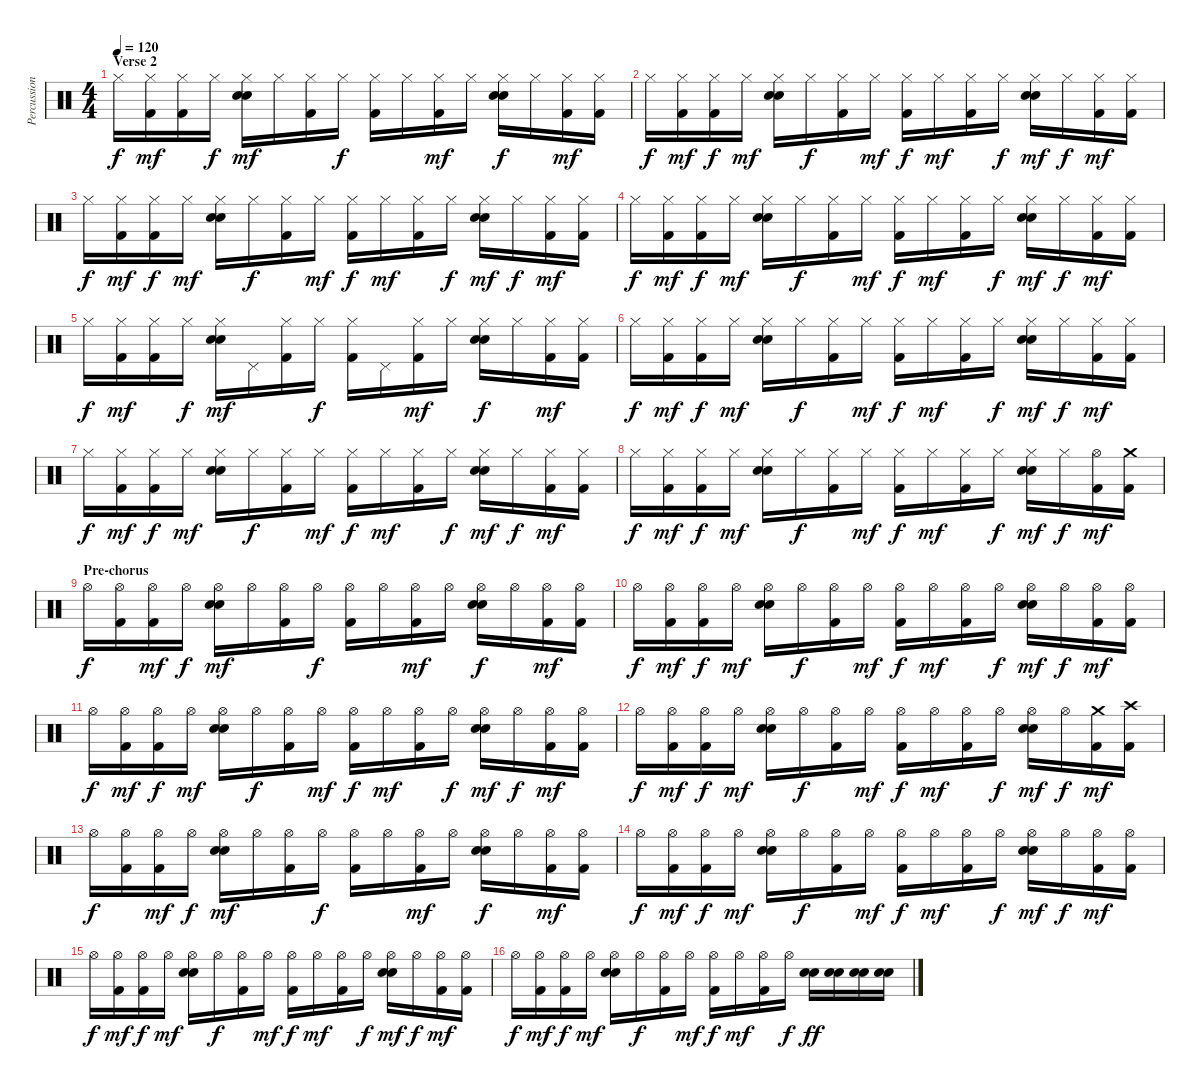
\track ("Percussions" "Percussion") {instrument percussion}
\staff {score}
\articulation defaults
\ts (4 4)
\section ("" "Verse 2")
\tempo 120
\clef neutral
\ks c "Hi-Hat (closed)".16{dy f}
("Hi-Hat (closed)" "Kick (hit) 2").16{dy mf} ("Hi-Hat (closed)" "Kick (hit) 2").16 "Hi-Hat (closed)".16{dy f} ("Hi-Hat (closed)" "Snare (hit) 2" "Electric Snare (hit)").16{dy mf} "Hi-Hat (closed)".16 ("Hi-Hat (closed)" "Kick (hit) 2").16 "Hi-Hat (closed)".16{dy f} ("Hi-Hat (closed)" "Kick (hit) 2").16 "Hi-Hat (closed)".16 ("Hi-Hat (closed)" "Kick (hit) 2").16{dy mf} "Hi-Hat (closed)".16 ("Hi-Hat (closed)" "Snare (hit) 2" "Electric Snare (hit)").16{dy f} "Hi-Hat (closed)".16 ("Hi-Hat (closed)" "Kick (hit) 2").16{dy mf} ("Hi-Hat (closed)" "Kick (hit) 2").16 |
"Hi-Hat (closed)".16{dy f} ("Hi-Hat (closed)" "Kick (hit) 2").16{dy mf} ("Hi-Hat (closed)" "Kick (hit) 2").16{dy f} "Hi-Hat (closed)".16{dy mf} ("Hi-Hat (closed)" "Snare (hit) 2" "Electric Snare (hit)").16 "Hi-Hat (closed)".16{dy f} ("Hi-Hat (closed)" "Kick (hit) 2").16 "Hi-Hat (closed)".16{dy mf} ("Hi-Hat (closed)" "Kick (hit) 2").16{dy f} "Hi-Hat (closed)".16{dy mf} ("Hi-Hat (closed)" "Kick (hit) 2").16 "Hi-Hat (closed)".16{dy f} ("Hi-Hat (closed)" "Snare (hit) 2" "Electric Snare (hit)").16{dy mf} "Hi-Hat (closed)".16{dy f} ("Hi-Hat (closed)" "Kick (hit) 2").16{dy mf} ("Hi-Hat (closed)" "Kick (hit) 2").16 |
"Hi-Hat (closed)".16{dy f} ("Hi-Hat (closed)" "Kick (hit) 2").16{dy mf} ("Hi-Hat (closed)" "Kick (hit) 2").16{dy f} "Hi-Hat (closed)".16{dy mf} ("Hi-Hat (closed)" "Snare (hit) 2" "Electric Snare (hit)").16 "Hi-Hat (closed)".16{dy f} ("Hi-Hat (closed)" "Kick (hit) 2").16 "Hi-Hat (closed)".16{dy mf} ("Hi-Hat (closed)" "Kick (hit) 2").16{dy f} "Hi-Hat (closed)".16{dy mf} ("Hi-Hat (closed)" "Kick (hit) 2").16 "Hi-Hat (closed)".16{dy f} ("Hi-Hat (closed)" "Snare (hit) 2" "Electric Snare (hit)").16{dy mf} "Hi-Hat (closed)".16{dy f} ("Hi-Hat (closed)" "Kick (hit) 2").16{dy mf} ("Hi-Hat (closed)" "Kick (hit) 2").16 |
"Hi-Hat (closed)".16{dy f} ("Hi-Hat (closed)" "Kick (hit) 2").16{dy mf} ("Hi-Hat (closed)" "Kick (hit) 2").16{dy f} "Hi-Hat (closed)".16{dy mf} ("Hi-Hat (closed)" "Snare (hit) 2" "Electric Snare (hit)").16 "Hi-Hat (closed)".16{dy f} ("Hi-Hat (closed)" "Kick (hit) 2").16 "Hi-Hat (closed)".16{dy mf} ("Hi-Hat (closed)" "Kick (hit) 2").16{dy f} "Hi-Hat (closed)".16{dy mf} ("Hi-Hat (closed)" "Kick (hit) 2").16 "Hi-Hat (closed)".16{dy f} ("Hi-Hat (closed)" "Snare (hit) 2" "Electric Snare (hit)").16{dy mf} "Hi-Hat (closed)".16{dy f} ("Hi-Hat (closed)" "Kick (hit) 2").16{dy mf} ("Hi-Hat (closed)" "Kick (hit) 2").16 |
"Hi-Hat (closed)".16{dy f} ("Hi-Hat (closed)" "Kick (hit) 2").16{dy mf} ("Hi-Hat (closed)" "Kick (hit) 2").16 "Hi-Hat (closed)".16{dy f} ("Hi-Hat (closed)" "Snare (hit) 2" "Electric Snare (hit)").16{dy mf} "Pedal Hi-Hat (hit)".16 ("Hi-Hat (closed)" "Kick (hit) 2").16 "Hi-Hat (closed)".16{dy f} ("Hi-Hat (closed)" "Kick (hit) 2").16 "Pedal Hi-Hat (hit)".16 ("Hi-Hat (closed)" "Kick (hit) 2").16{dy mf} "Hi-Hat (closed)".16 ("Hi-Hat (closed)" "Snare (hit) 2" "Electric Snare (hit)").16{dy f} "Hi-Hat (closed)".16 ("Hi-Hat (closed)" "Kick (hit) 2").16{dy mf} ("Hi-Hat (closed)" "Kick (hit) 2").16 |
"Hi-Hat (closed)".16{dy f} ("Hi-Hat (closed)" "Kick (hit) 2").16{dy mf} ("Hi-Hat (closed)" "Kick (hit) 2").16{dy f} "Hi-Hat (closed)".16{dy mf} ("Hi-Hat (closed)" "Snare (hit) 2" "Electric Snare (hit)").16 "Hi-Hat (closed)".16{dy f} ("Hi-Hat (closed)" "Kick (hit) 2").16 "Hi-Hat (closed)".16{dy mf} ("Hi-Hat (closed)" "Kick (hit) 2").16{dy f} "Hi-Hat (closed)".16{dy mf} ("Hi-Hat (closed)" "Kick (hit) 2").16 "Hi-Hat (closed)".16{dy f} ("Hi-Hat (closed)" "Snare (hit) 2" "Electric Snare (hit)").16{dy mf} "Hi-Hat (closed)".16{dy f} ("Hi-Hat (closed)" "Kick (hit) 2").16{dy mf} ("Hi-Hat (closed)" "Kick (hit) 2").16 |
"Hi-Hat (closed)".16{dy f} ("Hi-Hat (closed)" "Kick (hit) 2").16{dy mf} ("Hi-Hat (closed)" "Kick (hit) 2").16{dy f} "Hi-Hat (closed)".16{dy mf} ("Hi-Hat (closed)" "Snare (hit) 2" "Electric Snare (hit)").16 "Hi-Hat (closed)".16{dy f} ("Hi-Hat (closed)" "Kick (hit) 2").16 "Hi-Hat (closed)".16{dy mf} ("Hi-Hat (closed)" "Kick (hit) 2").16{dy f} "Hi-Hat (closed)".16{dy mf} ("Hi-Hat (closed)" "Kick (hit) 2").16 "Hi-Hat (closed)".16{dy f} ("Hi-Hat (closed)" "Snare (hit) 2" "Electric Snare (hit)").16{dy mf} "Hi-Hat (closed)".16{dy f} ("Hi-Hat (closed)" "Kick (hit) 2").16{dy mf} ("Hi-Hat (closed)" "Kick (hit) 2").16 |
"Hi-Hat (closed)".16{dy f} ("Hi-Hat (closed)" "Kick (hit) 2").16{dy mf} ("Hi-Hat (closed)" "Kick (hit) 2").16{dy f} "Hi-Hat (closed)".16{dy mf} ("Hi-Hat (closed)" "Snare (hit) 2" "Electric Snare (hit)").16 "Hi-Hat (closed)".16{dy f} ("Hi-Hat (closed)" "Kick (hit) 2").16 "Hi-Hat (closed)".16{dy mf} ("Hi-Hat (closed)" "Kick (hit) 2").16{dy f} "Hi-Hat (closed)".16{dy mf} ("Hi-Hat (closed)" "Kick (hit) 2").16 "Hi-Hat (closed)".16{dy f} ("Hi-Hat (closed)" "Snare (hit) 2" "Electric Snare (hit)").16{dy mf} "Hi-Hat (closed)".16{dy f} ("Hi-Hat (open)" "Kick (hit) 2").16{dy mf} ("Crash medium (hit)" "Kick (hit) 2").16 |
\section ("" "Pre-chorus")
"Hi-Hat (open)".16{dy f} ("Hi-Hat (open)" "Kick (hit) 2").16 ("Hi-Hat (open)" "Kick (hit) 2").16{dy mf} "Hi-Hat (open)".16{dy f} ("Hi-Hat (open)" "Snare (hit) 2" "Electric Snare (hit)").16{dy mf} "Hi-Hat (open)".16 ("Hi-Hat (open)" "Kick (hit) 2").16 "Hi-Hat (open)".16{dy f} ("Hi-Hat (open)" "Kick (hit) 2").16 "Hi-Hat (open)".16 ("Hi-Hat (open)" "Kick (hit) 2").16{dy mf} "Hi-Hat (open)".16 ("Hi-Hat (open)" "Snare (hit) 2" "Electric Snare (hit)").16{dy f} "Hi-Hat (open)".16 ("Hi-Hat (open)" "Kick (hit) 2").16{dy mf} ("Hi-Hat (open)" "Kick (hit) 2").16 |
"Hi-Hat (open)".16{dy f} ("Hi-Hat (open)" "Kick (hit) 2").16{dy mf} ("Hi-Hat (open)" "Kick (hit) 2").16{dy f} "Hi-Hat (open)".16{dy mf} ("Hi-Hat (open)" "Snare (hit) 2" "Electric Snare (hit)").16 "Hi-Hat (open)".16{dy f} ("Hi-Hat (open)" "Kick (hit) 2").16 "Hi-Hat (open)".16{dy mf} ("Hi-Hat (open)" "Kick (hit) 2").16{dy f} "Hi-Hat (open)".16{dy mf} ("Hi-Hat (open)" "Kick (hit) 2").16 "Hi-Hat (open)".16{dy f} ("Hi-Hat (open)" "Snare (hit) 2" "Electric Snare (hit)").16{dy mf} "Hi-Hat (open)".16{dy f} ("Hi-Hat (open)" "Kick (hit) 2").16{dy mf} ("Hi-Hat (open)" "Kick (hit) 2").16 |
"Hi-Hat (open)".16{dy f} ("Hi-Hat (open)" "Kick (hit) 2").16{dy mf} ("Hi-Hat (open)" "Kick (hit) 2").16{dy f} "Hi-Hat (open)".16{dy mf} ("Hi-Hat (open)" "Snare (hit) 2" "Electric Snare (hit)").16 "Hi-Hat (open)".16{dy f} ("Hi-Hat (open)" "Kick (hit) 2").16 "Hi-Hat (open)".16{dy mf} ("Hi-Hat (open)" "Kick (hit) 2").16{dy f} "Hi-Hat (open)".16{dy mf} ("Hi-Hat (open)" "Kick (hit) 2").16 "Hi-Hat (open)".16{dy f} ("Hi-Hat (open)" "Snare (hit) 2" "Electric Snare (hit)").16{dy mf} "Hi-Hat (open)".16{dy f} ("Hi-Hat (open)" "Kick (hit) 2").16{dy mf} ("Hi-Hat (open)" "Kick (hit) 2").16 |
"Hi-Hat (open)".16{dy f} ("Hi-Hat (open)" "Kick (hit) 2").16{dy mf} ("Hi-Hat (open)" "Kick (hit) 2").16{dy f} "Hi-Hat (open)".16{dy mf} ("Hi-Hat (open)" "Snare (hit) 2" "Electric Snare (hit)").16 "Hi-Hat (open)".16{dy f} ("Hi-Hat (open)" "Kick (hit) 2").16 "Hi-Hat (open)".16{dy mf} ("Hi-Hat (open)" "Kick (hit) 2").16{dy f} "Hi-Hat (open)".16{dy mf} ("Hi-Hat (open)" "Kick (hit) 2").16 "Hi-Hat (open)".16{dy f} ("Hi-Hat (open)" "Snare (hit) 2" "Electric Snare (hit)").16{dy mf} "Hi-Hat (open)".16{dy f} ("Crash medium (hit)" "Kick (hit) 2").16{dy mf} ("Crash high (hit)" "Kick (hit) 2").16 |
"Hi-Hat (open)".16{dy f} ("Hi-Hat (open)" "Kick (hit) 2").16 ("Hi-Hat (open)" "Kick (hit) 2").16{dy mf} "Hi-Hat (open)".16{dy f} ("Hi-Hat (open)" "Snare (hit) 2" "Electric Snare (hit)").16{dy mf} "Hi-Hat (open)".16 ("Hi-Hat (open)" "Kick (hit) 2").16 "Hi-Hat (open)".16{dy f} ("Hi-Hat (open)" "Kick (hit) 2").16 "Hi-Hat (open)".16 ("Hi-Hat (open)" "Kick (hit) 2").16{dy mf} "Hi-Hat (open)".16 ("Hi-Hat (open)" "Snare (hit) 2" "Electric Snare (hit)").16{dy f} "Hi-Hat (open)".16 ("Hi-Hat (open)" "Kick (hit) 2").16{dy mf} ("Hi-Hat (open)" "Kick (hit) 2").16 |
"Hi-Hat (open)".16{dy f} ("Hi-Hat (open)" "Kick (hit) 2").16{dy mf} ("Hi-Hat (open)" "Kick (hit) 2").16{dy f} "Hi-Hat (open)".16{dy mf} ("Hi-Hat (open)" "Snare (hit) 2" "Electric Snare (hit)").16 "Hi-Hat (open)".16{dy f} ("Hi-Hat (open)" "Kick (hit) 2").16 "Hi-Hat (open)".16{dy mf} ("Hi-Hat (open)" "Kick (hit) 2").16{dy f} "Hi-Hat (open)".16{dy mf} ("Hi-Hat (open)" "Kick (hit) 2").16 "Hi-Hat (open)".16{dy f} ("Hi-Hat (open)" "Snare (hit) 2" "Electric Snare (hit)").16{dy mf} "Hi-Hat (open)".16{dy f} ("Hi-Hat (open)" "Kick (hit) 2").16{dy mf} ("Hi-Hat (open)" "Kick (hit) 2").16 |
"Hi-Hat (open)".16{dy f} ("Hi-Hat (open)" "Kick (hit) 2").16{dy mf} ("Hi-Hat (open)" "Kick (hit) 2").16{dy f} "Hi-Hat (open)".16{dy mf} ("Hi-Hat (open)" "Snare (hit) 2" "Electric Snare (hit)").16 "Hi-Hat (open)".16{dy f} ("Hi-Hat (open)" "Kick (hit) 2").16 "Hi-Hat (open)".16{dy mf} ("Hi-Hat (open)" "Kick (hit) 2").16{dy f} "Hi-Hat (open)".16{dy mf} ("Hi-Hat (open)" "Kick (hit) 2").16 "Hi-Hat (open)".16{dy f} ("Hi-Hat (open)" "Snare (hit) 2" "Electric Snare (hit)").16{dy mf} "Hi-Hat (open)".16{dy f} ("Hi-Hat (open)" "Kick (hit) 2").16{dy mf} ("Hi-Hat (open)" "Kick (hit) 2").16 |
"Hi-Hat (open)".16{dy f} ("Hi-Hat (open)" "Kick (hit) 2").16{dy mf} ("Hi-Hat (open)" "Kick (hit) 2").16{dy f} "Hi-Hat (open)".16{dy mf} ("Hi-Hat (open)" "Snare (hit) 2" "Electric Snare (hit)").16 "Hi-Hat (open)".16{dy f} ("Hi-Hat (open)" "Kick (hit) 2").16 "Hi-Hat (open)".16{dy mf} ("Hi-Hat (open)" "Kick (hit) 2").16{dy f} "Hi-Hat (open)".16{dy mf} ("Hi-Hat (open)" "Kick (hit) 2").16 "Hi-Hat (open)".16{dy f} ("Snare (hit) 2" "Electric Snare (hit)").16{dy ff} ("Snare (hit) 2" "Electric Snare (hit)").16 ("Snare (hit) 2" "Electric Snare (hit)").16 ("Snare (hit) 2" "Electric Snare (hit)").16
